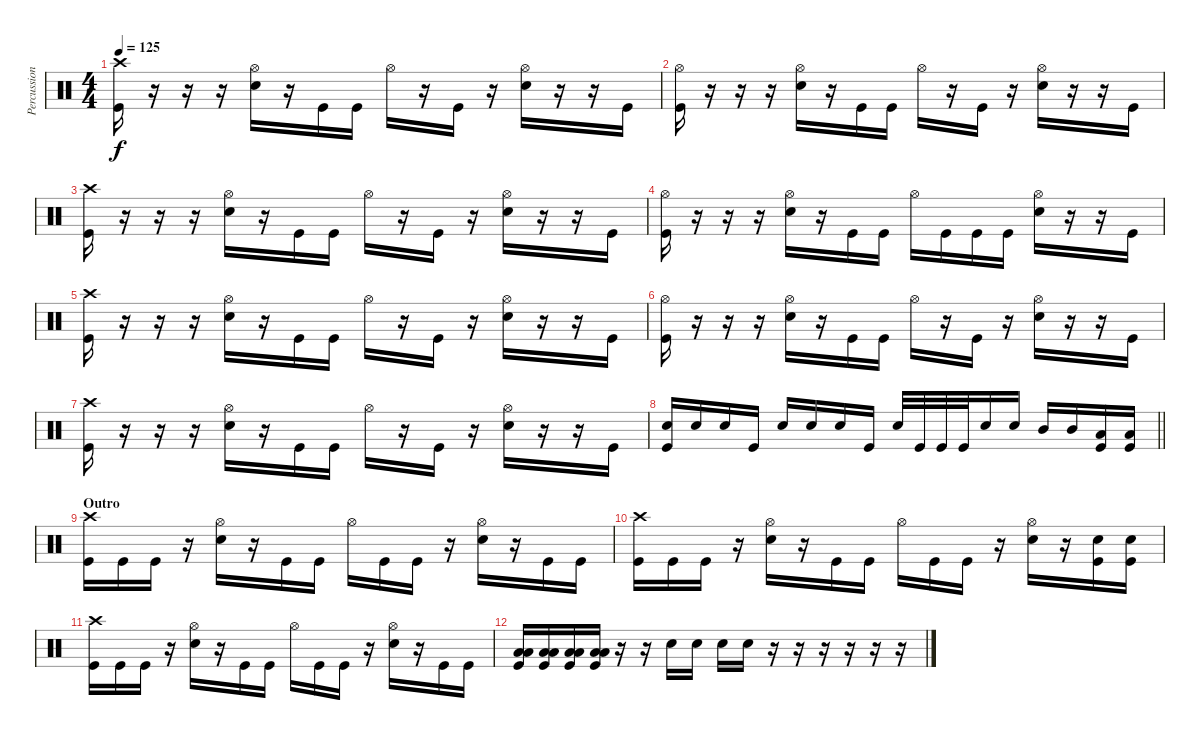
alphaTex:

\track ("Percussion" "Percussion") {instrument percussion}
\staff {score}
\articulation defaults
\ts (4 4)
\tempo 125
\clef neutral
\ks c
("Crash high (hit)" "Kick (hit)").16{dy f} r.16 r.16 r.16 ("Hi-Hat (open)" "Electric Snare (hit)").16 r.16 "Kick (hit)".16 "Kick (hit)".16 "Hi-Hat (open)".16 r.16 "Kick (hit)".16 r.16 ("Hi-Hat (open)" "Electric Snare (hit)").16 r.16 r.16 "Kick (hit)".16 |
("Hi-Hat (open)" "Kick (hit)").16 r.16 r.16 r.16 ("Hi-Hat (open)" "Electric Snare (hit)").16 r.16 "Kick (hit)".16 "Kick (hit)".16 "Hi-Hat (open)".16 r.16 "Kick (hit)".16 r.16 ("Hi-Hat (open)" "Electric Snare (hit)").16 r.16 r.16 "Kick (hit)".16 |
("Crash high (hit)" "Kick (hit)").16 r.16 r.16 r.16 ("Hi-Hat (open)" "Electric Snare (hit)").16 r.16 "Kick (hit)".16 "Kick (hit)".16 "Hi-Hat (open)".16 r.16 "Kick (hit)".16 r.16 ("Hi-Hat (open)" "Electric Snare (hit)").16 r.16 r.16 "Kick (hit)".16 |
("Hi-Hat (open)" "Kick (hit)").16 r.16 r.16 r.16 ("Hi-Hat (open)" "Electric Snare (hit)").16 r.16 "Kick (hit)".16 "Kick (hit)".16 "Hi-Hat (open)".16 "Kick (hit)".16 "Kick (hit)".16 "Kick (hit)".16 ("Hi-Hat (open)" "Electric Snare (hit)").16 r.16 r.16 "Kick (hit)".16 |
("Crash high (hit)" "Kick (hit)").16 r.16 r.16 r.16 ("Hi-Hat (open)" "Electric Snare (hit)").16 r.16 "Kick (hit)".16 "Kick (hit)".16 "Hi-Hat (open)".16 r.16 "Kick (hit)".16 r.16 ("Hi-Hat (open)" "Electric Snare (hit)").16 r.16 r.16 "Kick (hit)".16 |
("Hi-Hat (open)" "Kick (hit)").16 r.16 r.16 r.16 ("Hi-Hat (open)" "Electric Snare (hit)").16 r.16 "Kick (hit)".16 "Kick (hit)".16 "Hi-Hat (open)".16 r.16 "Kick (hit)".16 r.16 ("Hi-Hat (open)" "Electric Snare (hit)").16 r.16 r.16 "Kick (hit)".16 |
("Crash high (hit)" "Kick (hit)").16 r.16 r.16 r.16 ("Hi-Hat (open)" "Electric Snare (hit)").16 r.16 "Kick (hit)".16 "Kick (hit)".16 "Hi-Hat (open)".16 r.16 "Kick (hit)".16 r.16 ("Hi-Hat (open)" "Electric Snare (hit)").16 r.16 r.16 "Kick (hit)".16 |
\barLineRight lightlight
("Electric Snare (hit)" "Kick (hit)").16 "Electric Snare (hit)".16 "Electric Snare (hit)".16 "Kick (hit)".16 "Electric Snare (hit)".16 "Electric Snare (hit)".16 "Electric Snare (hit)".16 "Kick (hit)".16 "Electric Snare (hit)".32 "Kick (hit)".32 "Kick (hit)".32 "Kick (hit)".32 "Electric Snare (hit)".16 "Electric Snare (hit)".16 "Mid Tom (hit)".16 "Mid Tom (hit)".16 ("Low Tom (hit)" "Kick (hit)").16 ("Low Tom (hit)" "Kick (hit)").16 |
\section ("" "Outro")
("Crash high (hit)" "Kick (hit)").16 "Kick (hit)".16 "Kick (hit)".16 r.16 ("Hi-Hat (open)" "Electric Snare (hit)").16 r.16 "Kick (hit)".16 "Kick (hit)".16 "Hi-Hat (open)".16 "Kick (hit)".16 "Kick (hit)".16 r.16 ("Hi-Hat (open)" "Electric Snare (hit)").16 r.16 "Kick (hit)".16 "Kick (hit)".16 |
("Crash high (hit)" "Kick (hit)").16 "Kick (hit)".16 "Kick (hit)".16 r.16 ("Hi-Hat (open)" "Electric Snare (hit)").16 r.16 "Kick (hit)".16 "Kick (hit)".16 "Hi-Hat (open)".16 "Kick (hit)".16 "Kick (hit)".16 r.16 ("Hi-Hat (open)" "Electric Snare (hit)").16 r.16 ("Electric Snare (hit)" "Kick (hit)").16 ("Electric Snare (hit)" "Kick (hit)").16 |
("Crash high (hit)" "Kick (hit)").16 "Kick (hit)".16 "Kick (hit)".16 r.16 ("Hi-Hat (open)" "Electric Snare (hit)").16 r.16 "Kick (hit)".16 "Kick (hit)".16 "Hi-Hat (open)".16 "Kick (hit)".16 "Kick (hit)".16 r.16 ("Hi-Hat (open)" "Electric Snare (hit)").16 r.16 "Kick (hit)".16 "Kick (hit)".16 |
("Low Tom (hit)" "Low Floor Tom (hit)" "Kick (hit)").16 ("Low Tom (hit)" "Low Floor Tom (hit)" "Kick (hit)").16 ("Low Tom (hit)" "Low Floor Tom (hit)" "Kick (hit)").16 ("Low Tom (hit)" "Low Floor Tom (hit)" "Kick (hit)").16 r.16 r.16 "Electric Snare (hit)".16 "Electric Snare (hit)".16 "Electric Snare (hit)".16 "Electric Snare (hit)".16 r.16 r.16 r.16 r.16 r.16 r.16
